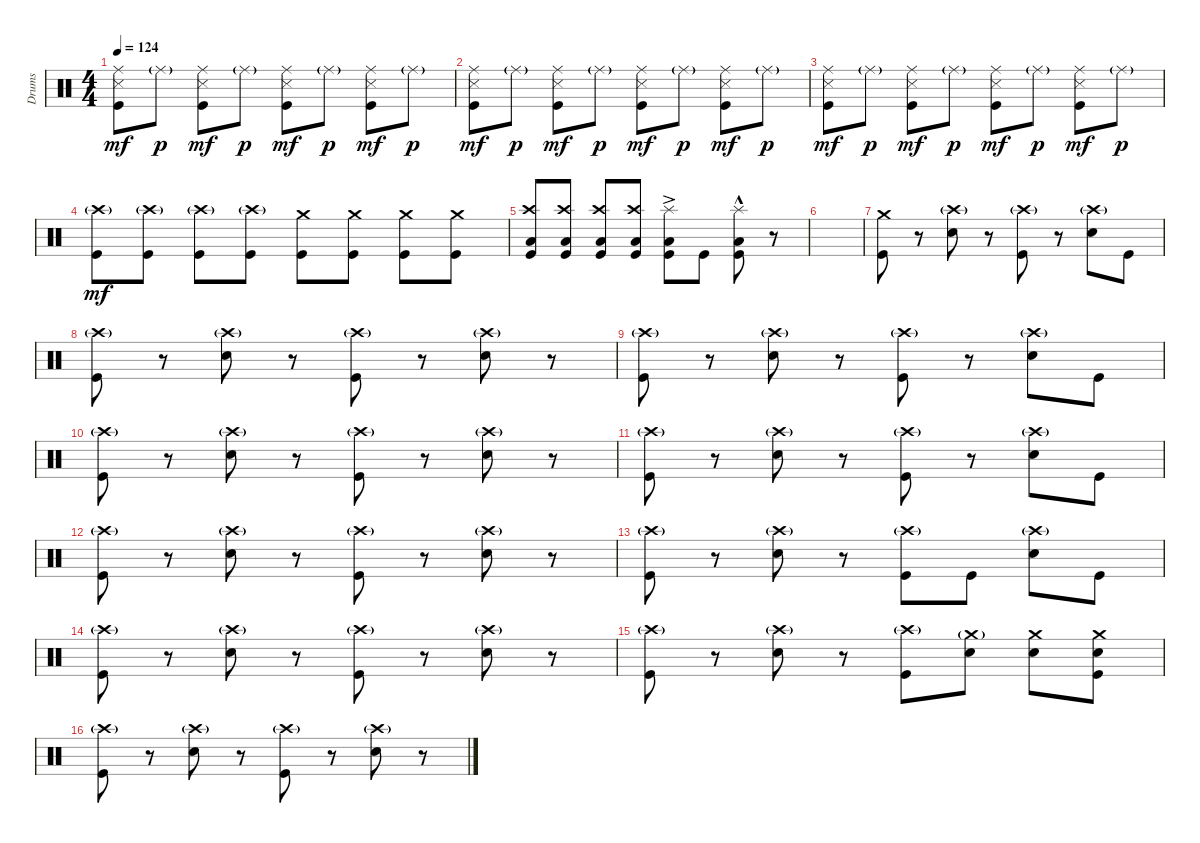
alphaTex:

\track ("Drums" "Drums") {instrument percussion}
\staff {score}
\articulation defaults
\ts (4 4)
\tempo 124
\clef neutral
\ks c
("Ride (middle)" "Snare (side stick) 3" "Kick (hit)").8{dy mf} "Ride (middle)"{g}.8{dy p} ("Ride (middle)" "Snare (side stick) 3" "Kick (hit)").8{dy mf} "Ride (middle)"{g}.8{dy p} ("Ride (middle)" "Snare (side stick) 3" "Kick (hit)").8{dy mf} "Ride (middle)"{g}.8{dy p} ("Ride (middle)" "Snare (side stick) 3" "Kick (hit)").8{dy mf} "Ride (middle)"{g}.8{dy p} |
("Ride (middle)" "Snare (side stick) 3" "Kick (hit)").8{dy mf} "Ride (middle)"{g}.8{dy p} ("Ride (middle)" "Snare (side stick) 3" "Kick (hit)").8{dy mf} "Ride (middle)"{g}.8{dy p} ("Ride (middle)" "Snare (side stick) 3" "Kick (hit)").8{dy mf} "Ride (middle)"{g}.8{dy p} ("Ride (middle)" "Snare (side stick) 3" "Kick (hit)").8{dy mf} "Ride (middle)"{g}.8{dy p} |
("Ride (middle)" "Snare (side stick) 3" "Kick (hit)").8{dy mf} "Ride (middle)"{g}.8{dy p} ("Ride (middle)" "Snare (side stick) 3" "Kick (hit)").8{dy mf} "Ride (middle)"{g}.8{dy p} ("Ride (middle)" "Snare (side stick) 3" "Kick (hit)").8{dy mf} "Ride (middle)"{g}.8{dy p} ("Ride (middle)" "Snare (side stick) 3" "Kick (hit)").8{dy mf} "Ride (middle)"{g}.8{dy p} |
("Crash high (hit)"{g} "Kick (hit)").8{dy mf} ("Crash high (hit)"{g} "Kick (hit)").8 ("Crash high (hit)"{g} "Kick (hit)").8 ("Crash high (hit)"{g} "Kick (hit)").8 ("Crash medium (hit)" "Kick (hit)").8 ("Crash medium (hit)" "Kick (hit)").8 ("Crash medium (hit)" "Kick (hit)").8 ("Crash medium (hit)" "Kick (hit)").8 |
("Crash high (hit)" "Low Floor Tom (hit)" "Kick (hit)").8 ("Crash high (hit)" "Low Floor Tom (hit)" "Kick (hit)").8 ("Crash high (hit)" "Low Floor Tom (hit)" "Kick (hit)").8 ("Crash high (hit)" "Low Floor Tom (hit)" "Kick (hit)").8 ("Splash (hit)"{ac} "Low Floor Tom (hit)" "Kick (hit)").8 "Kick (hit)".8 ("Splash (hit)"{hac} "Low Floor Tom (hit)" "Kick (hit)").8 r.8 |
|
("Crash medium (hit)" "Kick (hit)").8 r.8 ("Crash high (hit)"{g} "Electric Snare (hit)").8 r.8 ("Crash high (hit)"{g} "Kick (hit)").8 r.8 ("Crash high (hit)"{g} "Electric Snare (hit)").8 "Kick (hit)".8 |
("Crash high (hit)"{g} "Kick (hit)").8 r.8 ("Crash high (hit)"{g} "Electric Snare (hit)").8 r.8 ("Crash high (hit)"{g} "Kick (hit)").8 r.8 ("Crash high (hit)"{g} "Electric Snare (hit)").8 r.8 |
("Crash high (hit)"{g} "Kick (hit)").8 r.8 ("Crash high (hit)"{g} "Electric Snare (hit)").8 r.8 ("Crash high (hit)"{g} "Kick (hit)").8 r.8 ("Crash high (hit)"{g} "Electric Snare (hit)").8 "Kick (hit)".8 |
("Crash high (hit)"{g} "Kick (hit)").8 r.8 ("Crash high (hit)"{g} "Electric Snare (hit)").8 r.8 ("Crash high (hit)"{g} "Kick (hit)").8 r.8 ("Crash high (hit)"{g} "Electric Snare (hit)").8 r.8 |
("Crash high (hit)"{g} "Kick (hit)").8 r.8 ("Crash high (hit)"{g} "Electric Snare (hit)").8 r.8 ("Crash high (hit)"{g} "Kick (hit)").8 r.8 ("Crash high (hit)"{g} "Electric Snare (hit)").8 "Kick (hit)".8 |
("Crash high (hit)"{g} "Kick (hit)").8 r.8 ("Crash high (hit)"{g} "Electric Snare (hit)").8 r.8 ("Crash high (hit)"{g} "Kick (hit)").8 r.8 ("Crash high (hit)"{g} "Electric Snare (hit)").8 r.8 |
("Crash high (hit)"{g} "Kick (hit)").8 r.8 ("Crash high (hit)"{g} "Electric Snare (hit)").8 r.8 ("Crash high (hit)"{g} "Kick (hit)").8 "Kick (hit)".8 ("Crash high (hit)"{g} "Electric Snare (hit)").8 "Kick (hit)".8 |
("Crash high (hit)"{g} "Kick (hit)").8 r.8 ("Crash high (hit)"{g} "Electric Snare (hit)").8 r.8 ("Crash high (hit)"{g} "Kick (hit)").8 r.8 ("Crash high (hit)"{g} "Electric Snare (hit)").8 r.8 |
("Crash high (hit)"{g} "Kick (hit)").8 r.8 ("Crash high (hit)"{g} "Electric Snare (hit)").8 r.8 ("Crash high (hit)"{g} "Kick (hit)").8 ("Crash medium (hit)"{g} "Electric Snare (hit)").8 ("Crash medium (hit)" "Electric Snare (hit)").8 ("Crash medium (hit)" "Electric Snare (hit)" "Kick (hit)").8 |
("Crash high (hit)"{g} "Kick (hit)").8 r.8 ("Crash high (hit)"{g} "Electric Snare (hit)").8 r.8 ("Crash high (hit)"{g} "Kick (hit)").8 r.8 ("Crash high (hit)"{g} "Electric Snare (hit)").8 r.8
